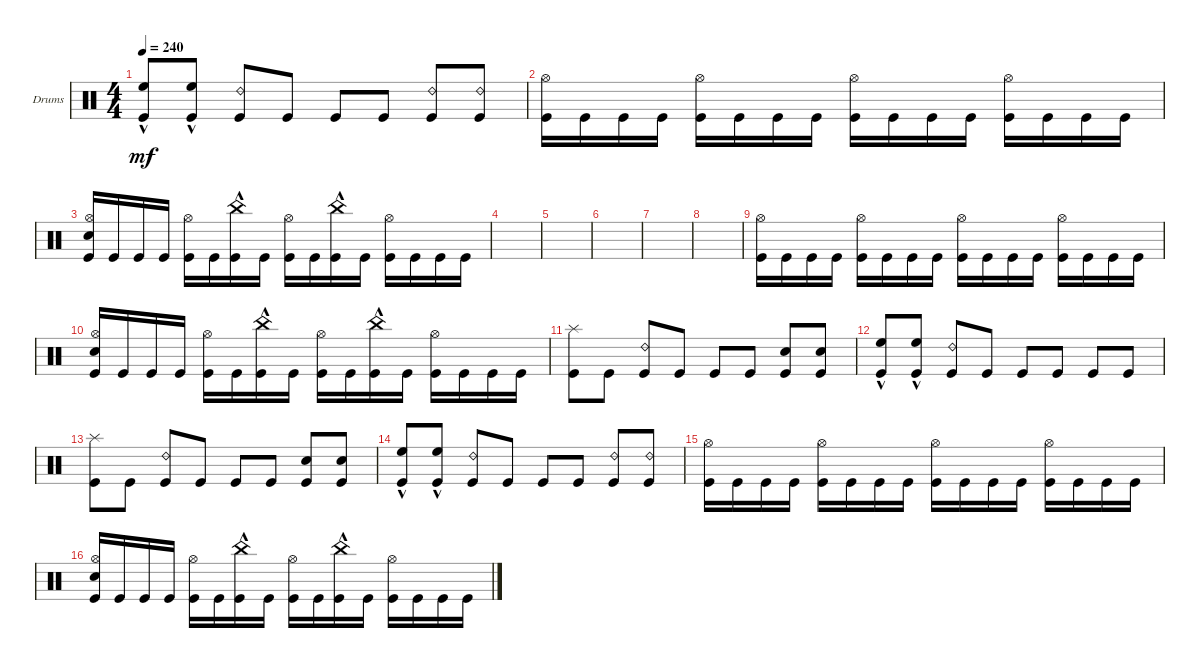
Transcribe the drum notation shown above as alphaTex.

\defaultSystemsLayout 4
\bracketExtendMode groupsimilarinstruments
\firstSystemTrackNameOrientation horizontal
\otherSystemsTrackNameOrientation horizontal
\track ("Drumkit" "Drums") {mute instrument percussion}
\staff {score}
\articulation defaults
\ts (4 4)
\tempo 240
\clef neutral
\ks c
("Kick (hit)" "High Floor Tom (hit)"{hac}).8{dy mf} ("Kick (hit)" "High Floor Tom (hit)"{hac}).8 ("Kick (hit)" "Ride (bell) 2").8 "Kick (hit)".8 "Kick (hit)".8 "Kick (hit)".8 ("Kick (hit)" "Ride (bell) 2").8 ("Kick (hit)" "Ride (bell) 2").8 |
("Kick (hit)" "Hi-Hat (open)").16 "Kick (hit)".16 "Kick (hit)".16 "Kick (hit)".16 ("Kick (hit)" "Hi-Hat (open)").16 "Kick (hit)".16 "Kick (hit)".16 "Kick (hit)".16 ("Kick (hit)" "Hi-Hat (open)").16 "Kick (hit)".16 "Kick (hit)".16 "Kick (hit)".16 ("Kick (hit)" "Hi-Hat (open)").16 "Kick (hit)".16 "Kick (hit)".16 "Kick (hit)".16 |
("Kick (hit)" "Hi-Hat (open)" "Snare (hit) 2").16 "Kick (hit)".16 "Kick (hit)".16 "Kick (hit)".16 ("Kick (hit)" "Hi-Hat (open)").16 "Kick (hit)".16 ("Kick (hit)" "China (hit)"{hac}).16 "Kick (hit)".16 ("Kick (hit)" "Hi-Hat (open)").16 "Kick (hit)".16 ("Kick (hit)" "China (hit)"{hac}).16 "Kick (hit)".16 ("Kick (hit)" "Hi-Hat (open)").16 "Kick (hit)".16 "Kick (hit)".16 "Kick (hit)".16 |
|
|
|
|
|
("Kick (hit)" "Hi-Hat (open)").16 "Kick (hit)".16 "Kick (hit)".16 "Kick (hit)".16 ("Kick (hit)" "Hi-Hat (open)").16 "Kick (hit)".16 "Kick (hit)".16 "Kick (hit)".16 ("Kick (hit)" "Hi-Hat (open)").16 "Kick (hit)".16 "Kick (hit)".16 "Kick (hit)".16 ("Kick (hit)" "Hi-Hat (open)").16 "Kick (hit)".16 "Kick (hit)".16 "Kick (hit)".16 |
("Kick (hit)" "Hi-Hat (open)" "Snare (hit) 2").16 "Kick (hit)".16 "Kick (hit)".16 "Kick (hit)".16 ("Kick (hit)" "Hi-Hat (open)").16 "Kick (hit)".16 ("Kick (hit)" "China (hit)"{hac}).16 "Kick (hit)".16 ("Kick (hit)" "Hi-Hat (open)").16 "Kick (hit)".16 ("Kick (hit)" "China (hit)"{hac}).16 "Kick (hit)".16 ("Kick (hit)" "Hi-Hat (open)").16 "Kick (hit)".16 "Kick (hit)".16 "Kick (hit)".16 |
("Kick (hit)" "Splash (hit)").8 "Kick (hit)".8 ("Kick (hit)" "Ride (bell) 2").8 "Kick (hit)".8 "Kick (hit)".8 "Kick (hit)".8 ("Kick (hit)" "Snare (hit) 2").8 ("Kick (hit)" "Snare (hit) 2").8 |
("Kick (hit)" "High Floor Tom (hit)"{hac}).8 ("Kick (hit)" "High Floor Tom (hit)"{hac}).8 ("Kick (hit)" "Ride (bell) 2").8 "Kick (hit)".8 "Kick (hit)".8 "Kick (hit)".8 "Kick (hit)".8 "Kick (hit)".8 |
("Kick (hit)" "Splash (hit)").8 "Kick (hit)".8 ("Kick (hit)" "Ride (bell) 2").8 "Kick (hit)".8 "Kick (hit)".8 "Kick (hit)".8 ("Kick (hit)" "Snare (hit) 2").8 ("Kick (hit)" "Snare (hit) 2").8 |
("Kick (hit)" "High Floor Tom (hit)"{hac}).8 ("Kick (hit)" "High Floor Tom (hit)"{hac}).8 ("Kick (hit)" "Ride (bell) 2").8 "Kick (hit)".8 "Kick (hit)".8 "Kick (hit)".8 ("Kick (hit)" "Ride (bell) 2").8 ("Kick (hit)" "Ride (bell) 2").8 |
("Kick (hit)" "Hi-Hat (open)").16 "Kick (hit)".16 "Kick (hit)".16 "Kick (hit)".16 ("Kick (hit)" "Hi-Hat (open)").16 "Kick (hit)".16 "Kick (hit)".16 "Kick (hit)".16 ("Kick (hit)" "Hi-Hat (open)").16 "Kick (hit)".16 "Kick (hit)".16 "Kick (hit)".16 ("Kick (hit)" "Hi-Hat (open)").16 "Kick (hit)".16 "Kick (hit)".16 "Kick (hit)".16 |
("Kick (hit)" "Hi-Hat (open)" "Snare (hit) 2").16 "Kick (hit)".16 "Kick (hit)".16 "Kick (hit)".16 ("Kick (hit)" "Hi-Hat (open)").16 "Kick (hit)".16 ("Kick (hit)" "China (hit)"{hac}).16 "Kick (hit)".16 ("Kick (hit)" "Hi-Hat (open)").16 "Kick (hit)".16 ("Kick (hit)" "China (hit)"{hac}).16 "Kick (hit)".16 ("Kick (hit)" "Hi-Hat (open)").16 "Kick (hit)".16 "Kick (hit)".16 "Kick (hit)".16
